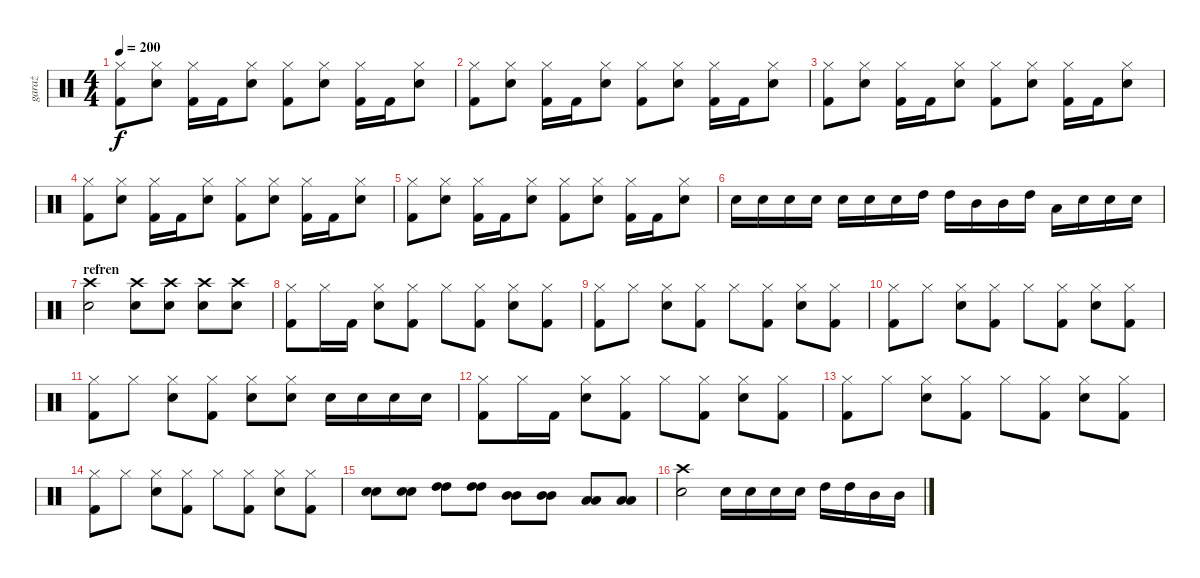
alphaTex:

\track ("garaż" "garaż") {instrument percussion}
\staff {score}
\articulation defaults
\ts (4 4)
\tempo 200
\clef neutral
\ks c
("Hi-Hat (closed)" "Kick (hit) 2").8{dy f} ("Hi-Hat (closed)" "Snare (hit) 2").8 ("Hi-Hat (closed)" "Kick (hit) 2").16 "Kick (hit) 2".16 ("Hi-Hat (closed)" "Snare (hit) 2").8 ("Hi-Hat (closed)" "Kick (hit) 2").8 ("Hi-Hat (closed)" "Snare (hit) 2").8 ("Hi-Hat (closed)" "Kick (hit) 2").16 "Kick (hit) 2".16 ("Hi-Hat (closed)" "Snare (hit) 2").8 |
("Hi-Hat (closed)" "Kick (hit) 2").8 ("Hi-Hat (closed)" "Snare (hit) 2").8 ("Hi-Hat (closed)" "Kick (hit) 2").16 "Kick (hit) 2".16 ("Hi-Hat (closed)" "Snare (hit) 2").8 ("Hi-Hat (closed)" "Kick (hit) 2").8 ("Hi-Hat (closed)" "Snare (hit) 2").8 ("Hi-Hat (closed)" "Kick (hit) 2").16 "Kick (hit) 2".16 ("Hi-Hat (closed)" "Snare (hit) 2").8 |
("Hi-Hat (closed)" "Kick (hit) 2").8 ("Hi-Hat (closed)" "Snare (hit) 2").8 ("Hi-Hat (closed)" "Kick (hit) 2").16 "Kick (hit) 2".16 ("Hi-Hat (closed)" "Snare (hit) 2").8 ("Hi-Hat (closed)" "Kick (hit) 2").8 ("Hi-Hat (closed)" "Snare (hit) 2").8 ("Hi-Hat (closed)" "Kick (hit) 2").16 "Kick (hit) 2".16 ("Hi-Hat (closed)" "Snare (hit) 2").8 |
("Hi-Hat (closed)" "Kick (hit) 2").8 ("Hi-Hat (closed)" "Snare (hit) 2").8 ("Hi-Hat (closed)" "Kick (hit) 2").16 "Kick (hit) 2".16 ("Hi-Hat (closed)" "Snare (hit) 2").8 ("Hi-Hat (closed)" "Kick (hit) 2").8 ("Hi-Hat (closed)" "Snare (hit) 2").8 ("Hi-Hat (closed)" "Kick (hit) 2").16 "Kick (hit) 2".16 ("Hi-Hat (closed)" "Snare (hit) 2").8 |
("Hi-Hat (closed)" "Kick (hit) 2").8 ("Hi-Hat (closed)" "Snare (hit) 2").8 ("Hi-Hat (closed)" "Kick (hit) 2").16 "Kick (hit) 2".16 ("Hi-Hat (closed)" "Snare (hit) 2").8 ("Hi-Hat (closed)" "Kick (hit) 2").8 ("Hi-Hat (closed)" "Snare (hit) 2").8 ("Hi-Hat (closed)" "Kick (hit) 2").16 "Kick (hit) 2".16 ("Hi-Hat (closed)" "Snare (hit) 2").8 |
"Snare (hit) 2".16 "Snare (hit) 2".16 "Snare (hit) 2".16 "Snare (hit) 2".16 "Snare (hit) 2".16 "Snare (hit) 2".16 "Snare (hit) 2".16 "High Tom (hit)".16 "High Tom (hit)".16 "Mid Tom (hit)".16 "Mid Tom (hit)".16 "High Tom (hit)".16 "Low Tom (hit)".16 "Snare (hit) 2".16 "Snare (hit) 2".16 "Snare (hit) 2".16 |
\section ("" "refren")
("Crash high (hit)" "Snare (hit) 2").2 ("Crash high (hit)" "Snare (hit) 2").8 ("Crash high (hit)" "Snare (hit) 2").8 ("Crash high (hit)" "Snare (hit) 2").8 ("Crash high (hit)" "Snare (hit) 2").8 |
("Hi-Hat (closed)" "Kick (hit) 2").8 "Hi-Hat (closed)".16 "Kick (hit) 2".16 ("Hi-Hat (closed)" "Snare (hit) 2").8 ("Hi-Hat (closed)" "Kick (hit) 2").8 "Hi-Hat (closed)".8 ("Hi-Hat (closed)" "Kick (hit) 2").8 ("Hi-Hat (closed)" "Snare (hit) 2").8 ("Hi-Hat (closed)" "Kick (hit) 2").8 |
("Hi-Hat (closed)" "Kick (hit) 2").8 "Hi-Hat (closed)".8 ("Hi-Hat (closed)" "Snare (hit) 2").8 ("Hi-Hat (closed)" "Kick (hit) 2").8 "Hi-Hat (closed)".8 ("Hi-Hat (closed)" "Kick (hit) 2").8 ("Hi-Hat (closed)" "Snare (hit) 2").8 ("Hi-Hat (closed)" "Kick (hit) 2").8 |
("Hi-Hat (closed)" "Kick (hit) 2").8 "Hi-Hat (closed)".8 ("Hi-Hat (closed)" "Snare (hit) 2").8 ("Hi-Hat (closed)" "Kick (hit) 2").8 "Hi-Hat (closed)".8 ("Hi-Hat (closed)" "Kick (hit) 2").8 ("Hi-Hat (closed)" "Snare (hit) 2").8 ("Hi-Hat (closed)" "Kick (hit) 2").8 |
("Hi-Hat (closed)" "Kick (hit) 2").8 "Hi-Hat (closed)".8 ("Hi-Hat (closed)" "Snare (hit) 2").8 ("Hi-Hat (closed)" "Kick (hit) 2").8 ("Hi-Hat (closed)" "Snare (hit) 2").8 ("Hi-Hat (closed)" "Snare (hit) 2").8 "Snare (hit) 2".16 "Snare (hit) 2".16 "Snare (hit) 2".16 "Snare (hit) 2".16 |
("Hi-Hat (closed)" "Kick (hit) 2").8 "Hi-Hat (closed)".16 "Kick (hit) 2".16 ("Hi-Hat (closed)" "Snare (hit) 2").8 ("Hi-Hat (closed)" "Kick (hit) 2").8 "Hi-Hat (closed)".8 ("Hi-Hat (closed)" "Kick (hit) 2").8 ("Hi-Hat (closed)" "Snare (hit) 2").8 ("Hi-Hat (closed)" "Kick (hit) 2").8 |
("Hi-Hat (closed)" "Kick (hit) 2").8 "Hi-Hat (closed)".8 ("Hi-Hat (closed)" "Snare (hit) 2").8 ("Hi-Hat (closed)" "Kick (hit) 2").8 "Hi-Hat (closed)".8 ("Hi-Hat (closed)" "Kick (hit) 2").8 ("Hi-Hat (closed)" "Snare (hit) 2").8 ("Hi-Hat (closed)" "Kick (hit) 2").8 |
("Hi-Hat (closed)" "Kick (hit) 2").8 "Hi-Hat (closed)".8 ("Hi-Hat (closed)" "Snare (hit) 2").8 ("Hi-Hat (closed)" "Kick (hit) 2").8 "Hi-Hat (closed)".8 ("Hi-Hat (closed)" "Kick (hit) 2").8 ("Hi-Hat (closed)" "Snare (hit) 2").8 ("Hi-Hat (closed)" "Kick (hit) 2").8 |
("Snare (hit) 2" "Snare (hit) 2").8 ("Snare (hit) 2" "Snare (hit) 2").8 ("High Tom (hit)" "High Tom (hit)").8 ("High Tom (hit)" "High Tom (hit)").8 ("Mid Tom (hit)" "Mid Tom (hit)").8 ("Mid Tom (hit)" "Mid Tom (hit)").8 ("Low Tom (hit)" "Low Tom (hit)").8 ("Low Tom (hit)" "Low Tom (hit)").8 |
("Crash high (hit)" "Snare (hit) 2").2 "Snare (hit) 2".16 "Snare (hit) 2".16 "Snare (hit) 2".16 "Snare (hit) 2".16 "High Tom (hit)".16 "High Tom (hit)".16 "Mid Tom (hit)".16 "Mid Tom (hit)".16
